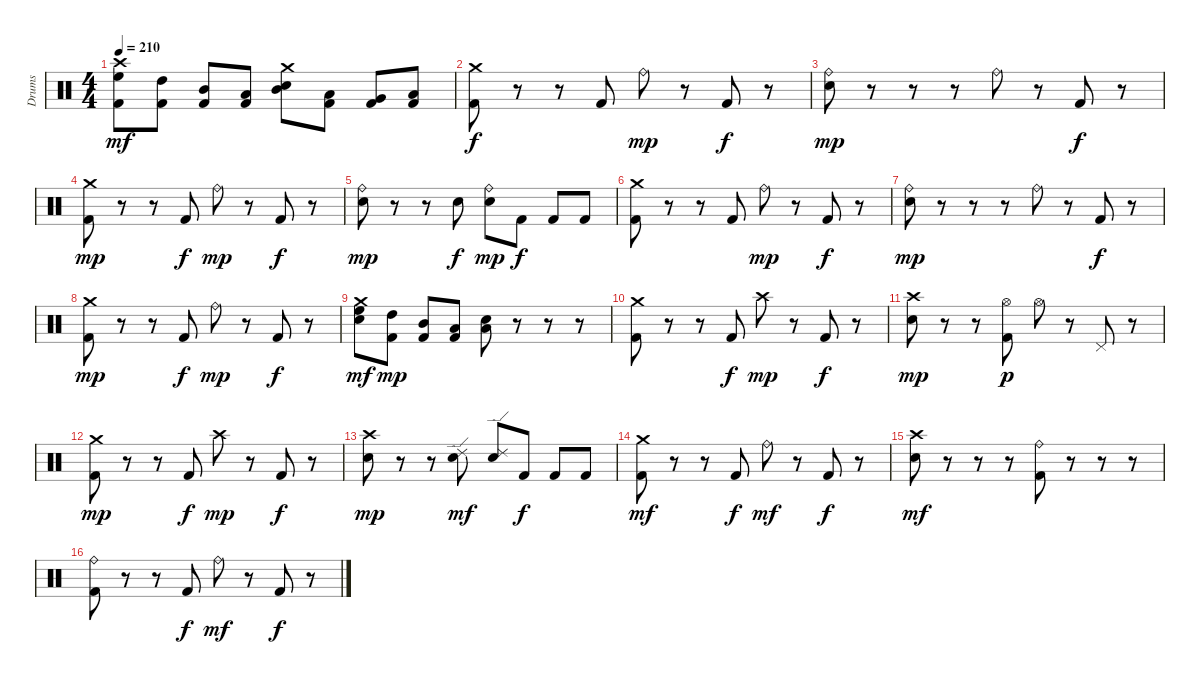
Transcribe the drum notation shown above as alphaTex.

\track ("Drums" "Drums") {instrument percussion}
\staff {score}
\articulation defaults
\ts (4 4)
\tempo 210
\clef neutral
\ks c
("Kick (hit) 2" "High Floor Tom (hit)" "Crash high (hit)").8{dy mf} ("Kick (hit) 2" "High Tom (hit)").8 ("Kick (hit) 2" "Mid Tom (hit)").8 ("Kick (hit) 2" "Low Tom (hit)").8 ("Snare (hit) 2" "Mid Tom (hit)" "Crash medium (hit)").8 ("Kick (hit) 2" "Low Tom (hit)").8 ("Kick (hit) 2" "Very Low Tom (hit)").8 ("Kick (hit) 2" "Low Floor Tom (hit)").8 |
("Kick (hit) 2" "Crash medium (hit)").8{dy f} r.8 r.8 "Kick (hit) 2".8 "Ride (bell)".8{dy mp} r.8 "Kick (hit) 2".8{dy f} r.8 |
("Snare (hit) 2" "Ride (bell)").8{dy mp} r.8 r.8 r.8 "Ride (bell)".8 r.8 "Kick (hit) 2".8{dy f} r.8 |
("Kick (hit) 2" "Crash medium (hit)").8{dy mp} r.8 r.8 "Kick (hit) 2".8{dy f} "Ride (bell)".8{dy mp} r.8 "Kick (hit) 2".8{dy f} r.8 |
("Snare (hit) 2" "Ride (bell)").8{dy mp} r.8 r.8 "Snare (hit) 2".8{dy f} ("Snare (hit) 2" "Ride (bell)").8{dy mp} "Kick (hit) 2".8{dy f} "Kick (hit) 2".8 "Kick (hit) 2".8 |
("Kick (hit) 2" "Crash medium (hit)").8 r.8 r.8 "Kick (hit) 2".8 "Ride (bell)".8{dy mp} r.8 "Kick (hit) 2".8{dy f} r.8 |
("Snare (hit) 2" "Ride (bell)").8{dy mp} r.8 r.8 r.8 "Ride (bell)".8 r.8 "Kick (hit) 2".8{dy f} r.8 |
("Kick (hit) 2" "Crash medium (hit)").8{dy mp} r.8 r.8 "Kick (hit) 2".8{dy f} "Ride (bell)".8{dy mp} r.8 "Kick (hit) 2".8{dy f} r.8 |
("Snare (hit) 2" "High Floor Tom (hit)" "Crash medium (hit)").8{dy mf} ("Kick (hit) 2" "High Tom (hit)").8{dy mp} ("Kick (hit) 2" "Mid Tom (hit)").8 ("Kick (hit) 2" "Low Floor Tom (hit)").8 ("Snare (hit) 2" "Low Tom (hit)").8 r.8 r.8 r.8 |
("Kick (hit) 2" "Crash medium (hit)").8 r.8 r.8 "Kick (hit) 2".8{dy f} "Crash high (hit)".8{dy mp} r.8 "Kick (hit) 2".8{dy f} r.8 |
("Snare (hit) 2" "Crash high (hit)").8{dy mp} r.8 r.8 ("Kick (hit) 2" "Hi-Hat (open)").8{dy p} "Hi-Hat (open)".8 r.8 "Pedal Hi-Hat (hit)".8 r.8 |
("Kick (hit) 2" "Crash medium (hit)").8{dy mp} r.8 r.8 "Kick (hit) 2".8{dy f} "Crash high (hit)".8{dy mp} r.8 "Kick (hit) 2".8{dy f} r.8 |
("Snare (hit) 2" "Crash high (hit)").8{dy mp} r.8 r.8 ("Snare (hit) 2" "Ride (edge) 2").8{dy mf} ("Snare (hit) 2" "Ride (edge) 2").8 "Kick (hit) 2".8{dy f} "Kick (hit) 2".8 "Kick (hit) 2".8 |
("Kick (hit) 2" "Crash medium (hit)").8{dy mf} r.8 r.8 "Kick (hit) 2".8{dy f} "Ride (bell)".8{dy mf} r.8 "Kick (hit) 2".8{dy f} r.8 |
("Snare (hit) 2" "Crash high (hit)").8{dy mf} r.8 r.8 r.8 ("Kick (hit) 2" "Ride (bell)").8 r.8 r.8 r.8 |
("Kick (hit) 2" "Ride (bell)").8 r.8 r.8 "Kick (hit) 2".8{dy f} "Ride (bell)".8{dy mf} r.8 "Kick (hit) 2".8{dy f} r.8
